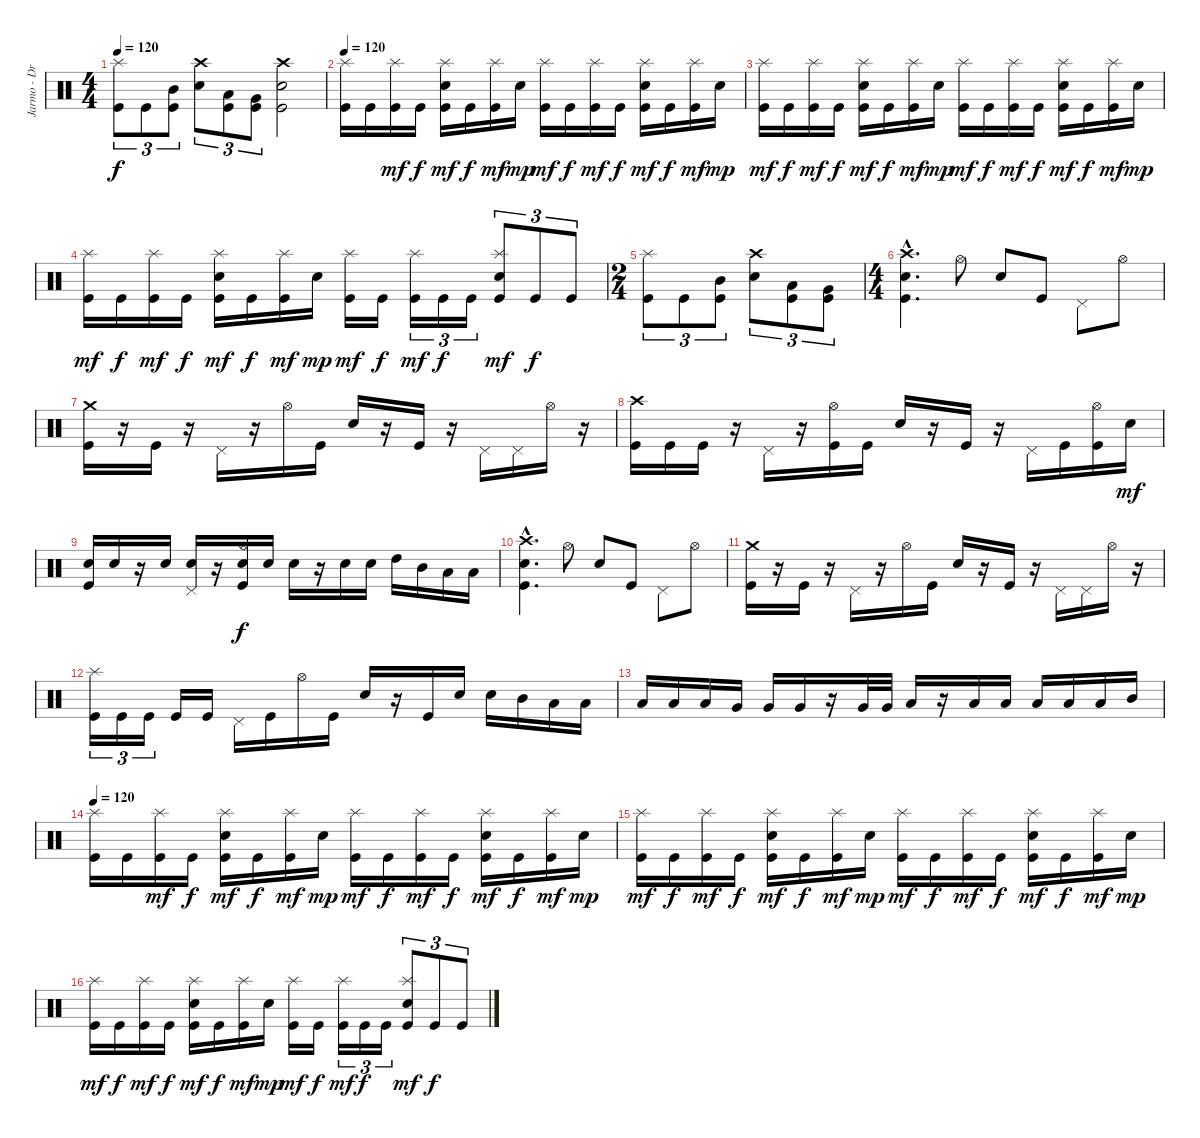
\track ("Jarmo - Drums" "Jarmo - Dr") {instrument percussion}
\staff {score}
\articulation defaults
\ts (4 4)
\tempo 120
\clef neutral
\ks c
("Kick (hit)" "Splash (hit)").8{tu (3 2) dy f} "Kick (hit)".8{tu (3 2)} ("Kick (hit)" "Mid Tom (hit)").8{tu (3 2)} ("Electric Snare (hit)" "Crash high (hit)").8{tu (3 2)} ("Kick (hit)" "Low Tom (hit)").8{tu (3 2)} ("Kick (hit)" "Very Low Tom (hit)").8{tu (3 2)} ("Kick (hit)" "Electric Snare (hit)" "Crash high (hit)").2 |
\tempo 120
("Kick (hit)" "Splash (hit)").16 "Kick (hit)".16 ("Kick (hit)" "Splash (hit)").16{dy mf} "Kick (hit)".16{dy f} ("Kick (hit)" "Electric Snare (hit)" "Splash (hit)").16{dy mf} "Kick (hit)".16{dy f} ("Kick (hit)" "Splash (hit)").16{dy mf} "Electric Snare (hit)".16{dy mp} ("Kick (hit)" "Splash (hit)").16{dy mf} "Kick (hit)".16{dy f} ("Kick (hit)" "Splash (hit)").16{dy mf} "Kick (hit)".16{dy f} ("Kick (hit)" "Electric Snare (hit)" "Splash (hit)").16{dy mf} "Kick (hit)".16{dy f} ("Kick (hit)" "Splash (hit)").16{dy mf} "Electric Snare (hit)".16{dy mp} |
("Kick (hit)" "Splash (hit)").16{dy mf} "Kick (hit)".16{dy f} ("Kick (hit)" "Splash (hit)").16{dy mf} "Kick (hit)".16{dy f} ("Kick (hit)" "Electric Snare (hit)" "Splash (hit)").16{dy mf} "Kick (hit)".16{dy f} ("Kick (hit)" "Splash (hit)").16{dy mf} "Electric Snare (hit)".16{dy mp} ("Kick (hit)" "Splash (hit)").16{dy mf} "Kick (hit)".16{dy f} ("Kick (hit)" "Splash (hit)").16{dy mf} "Kick (hit)".16{dy f} ("Kick (hit)" "Electric Snare (hit)" "Splash (hit)").16{dy mf} "Kick (hit)".16{dy f} ("Kick (hit)" "Splash (hit)").16{dy mf} "Electric Snare (hit)".16{dy mp} |
("Kick (hit)" "Splash (hit)").16{dy mf} "Kick (hit)".16{dy f} ("Kick (hit)" "Splash (hit)").16{dy mf} "Kick (hit)".16{dy f} ("Kick (hit)" "Electric Snare (hit)" "Splash (hit)").16{dy mf} "Kick (hit)".16{dy f} ("Kick (hit)" "Splash (hit)").16{dy mf} "Electric Snare (hit)".16{dy mp} ("Kick (hit)" "Splash (hit)").16{dy mf} "Kick (hit)".16{dy f} ("Kick (hit)" "Splash (hit)").16{tu (3 2) dy mf} "Kick (hit)".16{tu (3 2) dy f} "Kick (hit)".16{tu (3 2)} ("Kick (hit)" "Electric Snare (hit)" "Splash (hit)").8{tu (3 2) dy mf} "Kick (hit)".8{tu (3 2) dy f} "Kick (hit)".8{tu (3 2)} |
\ts (2 4)
("Kick (hit)" "Splash (hit)").8{tu (3 2)} "Kick (hit)".8{tu (3 2)} ("Kick (hit)" "Mid Tom (hit)").8{tu (3 2)} ("Electric Snare (hit)" "Crash high (hit)").8{tu (3 2)} ("Kick (hit)" "Low Tom (hit)").8{tu (3 2)} ("Kick (hit)" "Very Low Tom (hit)").8{tu (3 2)} |
\ts (4 4)
("Kick (hit)"{hac} "Electric Snare (hit)"{hac} "Crash high (hit)"{hac}).4{d} "Hi-Hat (open)".8 "Electric Snare (hit)".8 "Kick (hit)".8 "Pedal Hi-Hat (hit)".8 "Hi-Hat (open)".8 |
("Kick (hit)" "Crash medium (hit)").16 r.16 "Kick (hit)".16 r.16 "Pedal Hi-Hat (hit)".16 r.16 "Hi-Hat (open)".16 "Kick (hit)".16 "Electric Snare (hit)".16 r.16 "Kick (hit)".16 r.16 "Pedal Hi-Hat (hit)".16 "Pedal Hi-Hat (hit)".16 "Hi-Hat (open)".16 r.16 |
("Kick (hit)" "Crash high (hit)").16 "Kick (hit)".16 "Kick (hit)".16 r.16 "Pedal Hi-Hat (hit)".16 r.16 ("Kick (hit)" "Hi-Hat (open)").16 "Kick (hit)".16 "Electric Snare (hit)".16 r.16 "Kick (hit)".16 r.16 "Pedal Hi-Hat (hit)".16 "Kick (hit)".16 ("Kick (hit)" "Hi-Hat (open)").16 "Snare (hit) 2".16{dy mf} |
("Kick (hit)" "Snare (hit) 2").16 "Snare (hit) 2".16 r.16 "Snare (hit) 2".16 ("Snare (hit) 2" "Pedal Hi-Hat (hit)").16 r.16 ("Kick (hit)" "Snare (hit) 2" "Hi-Hat (open)").16{dy f} "Snare (hit) 2".16 "Electric Snare (hit)".16 r.16 "Electric Snare (hit)".16 "Electric Snare (hit)".16 "High Tom (hit)".16 "Mid Tom (hit)".16 "Low Tom (hit)".16 "Low Tom (hit)".16 |
("Kick (hit)"{hac} "Electric Snare (hit)"{hac} "Crash high (hit)"{hac}).4{d} "Hi-Hat (open)".8 "Electric Snare (hit)".8 "Kick (hit)".8 "Pedal Hi-Hat (hit)".8 "Hi-Hat (open)".8 |
("Kick (hit)" "Crash medium (hit)").16 r.16 "Kick (hit)".16 r.16 "Pedal Hi-Hat (hit)".16 r.16 "Hi-Hat (open)".16 "Kick (hit)".16 "Electric Snare (hit)".16 r.16 "Kick (hit)".16 r.16 "Pedal Hi-Hat (hit)".16 "Pedal Hi-Hat (hit)".16 "Hi-Hat (open)".16 r.16 |
("Kick (hit)" "Splash (hit)").16{tu (3 2)} "Kick (hit)".16{tu (3 2)} "Kick (hit)".16{tu (3 2)} "Kick (hit)".16 "Kick (hit)".16 "Pedal Hi-Hat (hit)".16 "Kick (hit)".16 "Hi-Hat (open)".16 "Kick (hit)".16 "Electric Snare (hit)".16 r.16 "Kick (hit)".16 "Electric Snare (hit)".16 "Electric Snare (hit)".16 "Mid Tom (hit)".16 "Low Tom (hit)".16 "Low Tom (hit)".16 |
"Low Tom (hit)".16 "Low Tom (hit)".16 "Low Tom (hit)".16 "Very Low Tom (hit)".16 "Very Low Tom (hit)".16 "Very Low Tom (hit)".16 r.16 "Very Low Tom (hit)".32 "Very Low Tom (hit)".32 "Low Floor Tom (hit)".16 r.16 "Low Floor Tom (hit)".16 "Low Floor Tom (hit)".16 "Low Tom (hit)".16 "Low Tom (hit)".16 "Low Tom (hit)".16 "Mid Tom (hit)".16 |
\tempo 120
("Kick (hit)" "Splash (hit)").16 "Kick (hit)".16 ("Kick (hit)" "Splash (hit)").16{dy mf} "Kick (hit)".16{dy f} ("Kick (hit)" "Electric Snare (hit)" "Splash (hit)").16{dy mf} "Kick (hit)".16{dy f} ("Kick (hit)" "Splash (hit)").16{dy mf} "Electric Snare (hit)".16{dy mp} ("Kick (hit)" "Splash (hit)").16{dy mf} "Kick (hit)".16{dy f} ("Kick (hit)" "Splash (hit)").16{dy mf} "Kick (hit)".16{dy f} ("Kick (hit)" "Electric Snare (hit)" "Splash (hit)").16{dy mf} "Kick (hit)".16{dy f} ("Kick (hit)" "Splash (hit)").16{dy mf} "Electric Snare (hit)".16{dy mp} |
("Kick (hit)" "Splash (hit)").16{dy mf} "Kick (hit)".16{dy f} ("Kick (hit)" "Splash (hit)").16{dy mf} "Kick (hit)".16{dy f} ("Kick (hit)" "Electric Snare (hit)" "Splash (hit)").16{dy mf} "Kick (hit)".16{dy f} ("Kick (hit)" "Splash (hit)").16{dy mf} "Electric Snare (hit)".16{dy mp} ("Kick (hit)" "Splash (hit)").16{dy mf} "Kick (hit)".16{dy f} ("Kick (hit)" "Splash (hit)").16{dy mf} "Kick (hit)".16{dy f} ("Kick (hit)" "Electric Snare (hit)" "Splash (hit)").16{dy mf} "Kick (hit)".16{dy f} ("Kick (hit)" "Splash (hit)").16{dy mf} "Electric Snare (hit)".16{dy mp} |
("Kick (hit)" "Splash (hit)").16{dy mf} "Kick (hit)".16{dy f} ("Kick (hit)" "Splash (hit)").16{dy mf} "Kick (hit)".16{dy f} ("Kick (hit)" "Electric Snare (hit)" "Splash (hit)").16{dy mf} "Kick (hit)".16{dy f} ("Kick (hit)" "Splash (hit)").16{dy mf} "Electric Snare (hit)".16{dy mp} ("Kick (hit)" "Splash (hit)").16{dy mf} "Kick (hit)".16{dy f} ("Kick (hit)" "Splash (hit)").16{tu (3 2) dy mf} "Kick (hit)".16{tu (3 2) dy f} "Kick (hit)".16{tu (3 2)} ("Kick (hit)" "Electric Snare (hit)" "Splash (hit)").8{tu (3 2) dy mf} "Kick (hit)".8{tu (3 2) dy f} "Kick (hit)".8{tu (3 2)}
